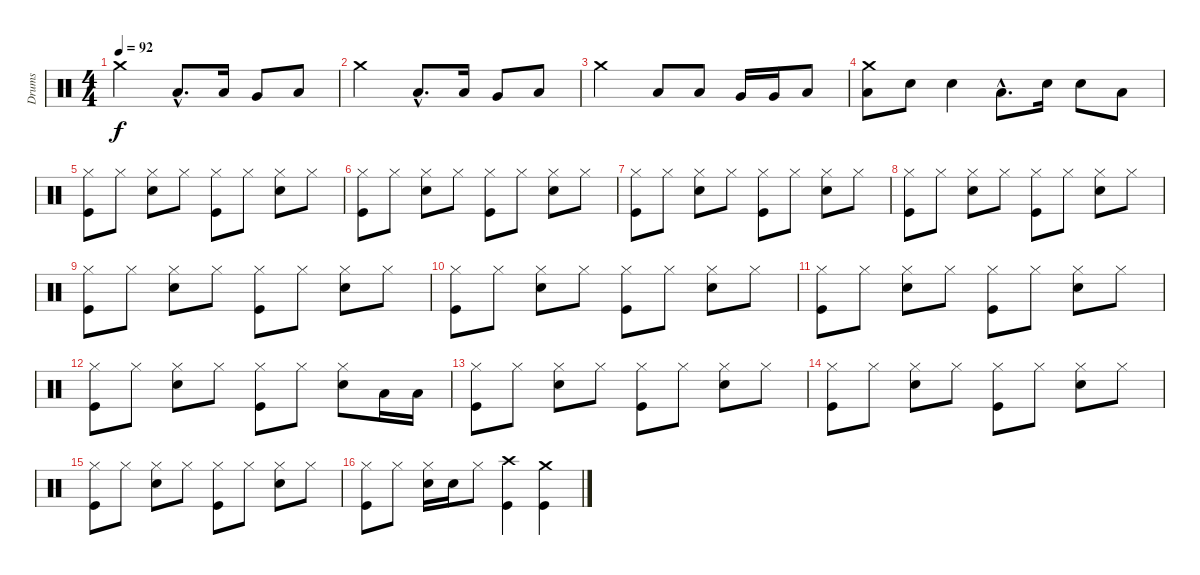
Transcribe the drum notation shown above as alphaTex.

\track ("Drums" "Drums") {instrument percussion}
\staff {score}
\articulation defaults
\ts (4 4)
\tempo 92
\clef neutral
\ks c "Crash medium (hit)".2{dy f} "Low Tom (hit)"{hac}.8{d} "Low Tom (hit)".16 "Very Low Tom (hit)".8 "Low Floor Tom (hit)".8
|
"Crash medium (hit)".2 "Low Tom (hit)"{hac}.8{d} "Low Tom (hit)".16 "Very Low Tom (hit)".8 "Low Floor Tom (hit)".8 |
"Crash medium (hit)".2 "Low Tom (hit)".8 "Low Tom (hit)".8 "Very Low Tom (hit)".16 "Very Low Tom (hit)".16 "Low Floor Tom (hit)".8 |
("Low Tom (hit)" "Crash medium (hit)").8 "Electric Snare (hit)".8 "Electric Snare (hit)".4 "Low Tom (hit)"{hac}.8{d} "Electric Snare (hit)".16 "Electric Snare (hit)".8 "Low Tom (hit)".8 |
("Kick (hit)" "Hi-Hat (closed)").8 "Hi-Hat (closed)".8 ("Electric Snare (hit)" "Hi-Hat (closed)").8 "Hi-Hat (closed)".8 ("Kick (hit)" "Hi-Hat (closed)").8 "Hi-Hat (closed)".8 ("Electric Snare (hit)" "Hi-Hat (closed)").8 "Hi-Hat (closed)".8 |
("Kick (hit)" "Hi-Hat (closed)").8 "Hi-Hat (closed)".8 ("Electric Snare (hit)" "Hi-Hat (closed)").8 "Hi-Hat (closed)".8 ("Kick (hit)" "Hi-Hat (closed)").8 "Hi-Hat (closed)".8 ("Electric Snare (hit)" "Hi-Hat (closed)").8 "Hi-Hat (closed)".8 |
("Kick (hit)" "Hi-Hat (closed)").8 "Hi-Hat (closed)".8 ("Electric Snare (hit)" "Hi-Hat (closed)").8 "Hi-Hat (closed)".8 ("Kick (hit)" "Hi-Hat (closed)").8 "Hi-Hat (closed)".8 ("Electric Snare (hit)" "Hi-Hat (closed)").8 "Hi-Hat (closed)".8 |
("Kick (hit)" "Hi-Hat (closed)").8 "Hi-Hat (closed)".8 ("Electric Snare (hit)" "Hi-Hat (closed)").8 "Hi-Hat (closed)".8 ("Kick (hit)" "Hi-Hat (closed)").8 "Hi-Hat (closed)".8 ("Electric Snare (hit)" "Hi-Hat (closed)").8 "Hi-Hat (closed)".8 |
("Kick (hit)" "Hi-Hat (closed)").8 "Hi-Hat (closed)".8 ("Electric Snare (hit)" "Hi-Hat (closed)").8 "Hi-Hat (closed)".8 ("Kick (hit)" "Hi-Hat (closed)").8 "Hi-Hat (closed)".8 ("Electric Snare (hit)" "Hi-Hat (closed)").8 "Hi-Hat (closed)".8 |
("Kick (hit)" "Hi-Hat (closed)").8 "Hi-Hat (closed)".8 ("Electric Snare (hit)" "Hi-Hat (closed)").8 "Hi-Hat (closed)".8 ("Kick (hit)" "Hi-Hat (closed)").8 "Hi-Hat (closed)".8 ("Electric Snare (hit)" "Hi-Hat (closed)").8 "Hi-Hat (closed)".8 |
("Kick (hit)" "Hi-Hat (closed)").8 "Hi-Hat (closed)".8 ("Electric Snare (hit)" "Hi-Hat (closed)").8 "Hi-Hat (closed)".8 ("Kick (hit)" "Hi-Hat (closed)").8 "Hi-Hat (closed)".8 ("Electric Snare (hit)" "Hi-Hat (closed)").8 "Hi-Hat (closed)".8 |
("Kick (hit)" "Hi-Hat (closed)").8 "Hi-Hat (closed)".8 ("Electric Snare (hit)" "Hi-Hat (closed)").8 "Hi-Hat (closed)".8 ("Kick (hit)" "Hi-Hat (closed)").8 "Hi-Hat (closed)".8 ("Electric Snare (hit)" "Hi-Hat (closed)").8 "Low Tom (hit)".16 "Low Tom (hit)".16 |
("Kick (hit)" "Hi-Hat (closed)").8 "Hi-Hat (closed)".8 ("Electric Snare (hit)" "Hi-Hat (closed)").8 "Hi-Hat (closed)".8 ("Kick (hit)" "Hi-Hat (closed)").8 "Hi-Hat (closed)".8 ("Electric Snare (hit)" "Hi-Hat (closed)").8 "Hi-Hat (closed)".8 |
("Kick (hit)" "Hi-Hat (closed)").8 "Hi-Hat (closed)".8 ("Electric Snare (hit)" "Hi-Hat (closed)").8 "Hi-Hat (closed)".8 ("Kick (hit)" "Hi-Hat (closed)").8 "Hi-Hat (closed)".8 ("Electric Snare (hit)" "Hi-Hat (closed)").8 "Hi-Hat (closed)".8 |
("Kick (hit)" "Hi-Hat (closed)").8 "Hi-Hat (closed)".8 ("Electric Snare (hit)" "Hi-Hat (closed)").8 "Hi-Hat (closed)".8 ("Kick (hit)" "Hi-Hat (closed)").8 "Hi-Hat (closed)".8 ("Electric Snare (hit)" "Hi-Hat (closed)").8 "Hi-Hat (closed)".8 |
("Kick (hit)" "Hi-Hat (closed)").8 "Hi-Hat (closed)".8 ("Electric Snare (hit)" "Hi-Hat (closed)").16 "Electric Snare (hit)".16 "Hi-Hat (closed)".8 ("Kick (hit)" "Crash high (hit)").4 ("Kick (hit)" "Crash medium (hit)").4
